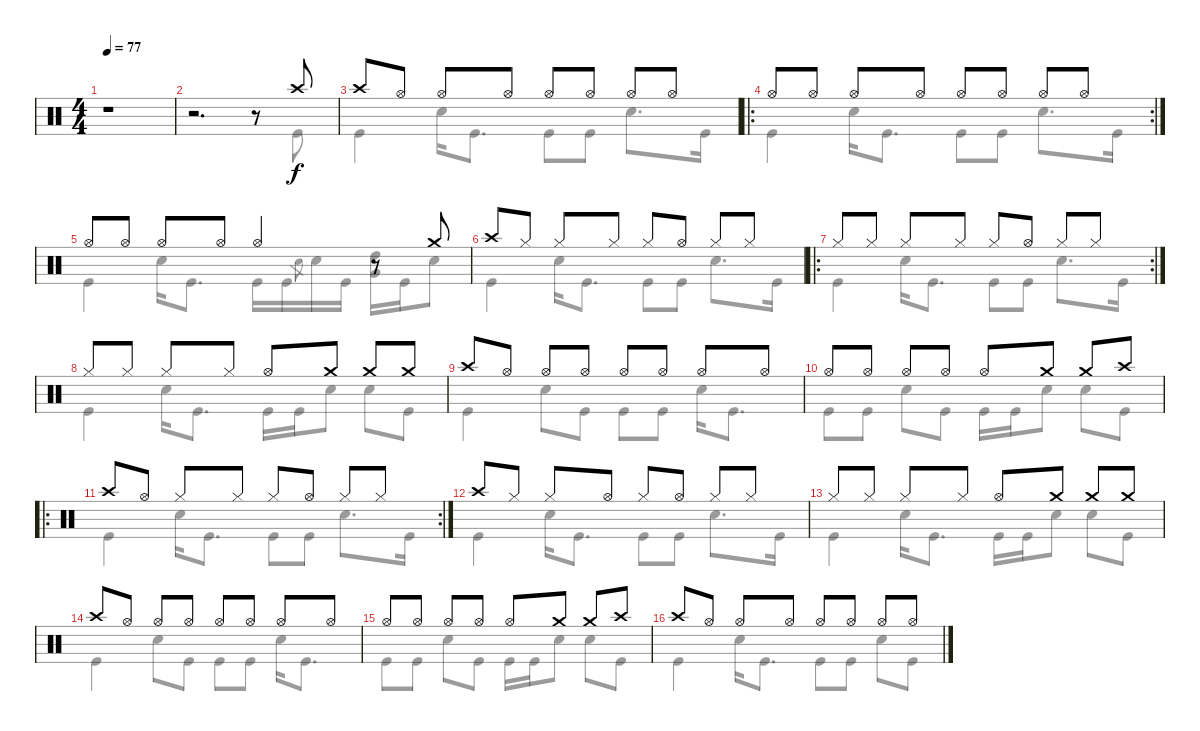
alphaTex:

\track "" {instrument percussion}
\staff {score}
\articulation defaults
\voice
\ts (4 4)
\tempo 77
\clef neutral
\ks c
r.1{dy f} |
r.2{d} r.8 "Crash high (hit)".8 |
"Crash high (hit)".8 "Hi-Hat (open)".8 "Hi-Hat (open)".8 "Hi-Hat (open)".8 "Hi-Hat (open)".8 "Hi-Hat (open)".8 "Hi-Hat (open)".8 "Hi-Hat (open)".8 |
\ro
\rc 2 "Hi-Hat (open)".8 "Hi-Hat (open)".8 "Hi-Hat (open)".8 "Hi-Hat (open)".8 "Hi-Hat (open)".8 "Hi-Hat (open)".8 "Hi-Hat (open)".8 "Hi-Hat (open)".8
|
"Hi-Hat (open)".8 "Hi-Hat (open)".8 "Hi-Hat (open)".8 "Hi-Hat (open)".8 "Hi-Hat (open)".4 r.8 "Crash medium (hit)".8 |
"Crash high (hit)".8 "Hi-Hat (closed)".8 "Hi-Hat (closed)".8 "Hi-Hat (closed)".8 "Hi-Hat (closed)".8 "Hi-Hat (open)".8 "Hi-Hat (closed)".8 "Hi-Hat (closed)".8 |
\ro
\rc 2 "Hi-Hat (closed)".8 "Hi-Hat (closed)".8 "Hi-Hat (closed)".8 "Hi-Hat (closed)".8 "Hi-Hat (closed)".8 "Hi-Hat (open)".8 "Hi-Hat (closed)".8 "Hi-Hat (closed)".8
|
"Hi-Hat (closed)".8 "Hi-Hat (closed)".8 "Hi-Hat (closed)".8 "Hi-Hat (closed)".8 "Hi-Hat (open)".8 "Crash medium (hit)".8 "Crash medium (hit)".8 "Crash medium (hit)".8 |
"Crash high (hit)".8 "Hi-Hat (open)".8 "Hi-Hat (open)".8 "Hi-Hat (open)".8 "Hi-Hat (open)".8 "Hi-Hat (open)".8 "Hi-Hat (open)".8 "Hi-Hat (open)".8 |
"Hi-Hat (open)".8 "Hi-Hat (open)".8 "Hi-Hat (open)".8 "Hi-Hat (open)".8 "Hi-Hat (open)".8 "Crash medium (hit)".8 "Crash medium (hit)".8 "Crash high (hit)".8 |
\ro
\rc 2 "Crash high (hit)".8 "Hi-Hat (open)".8 "Hi-Hat (closed)".8 "Hi-Hat (closed)".8 "Hi-Hat (closed)".8 "Hi-Hat (open)".8 "Hi-Hat (closed)".8 "Hi-Hat (closed)".8
|
"Crash high (hit)".8 "Hi-Hat (closed)".8 "Hi-Hat (closed)".8 "Hi-Hat (open)".8 "Hi-Hat (closed)".8 "Hi-Hat (open)".8 "Hi-Hat (closed)".8 "Hi-Hat (closed)".8 |
"Hi-Hat (closed)".8 "Hi-Hat (closed)".8 "Hi-Hat (closed)".8 "Hi-Hat (closed)".8 "Hi-Hat (open)".8 "Crash medium (hit)".8 "Crash medium (hit)".8 "Crash medium (hit)".8 |
"Crash high (hit)".8 "Hi-Hat (open)".8 "Hi-Hat (open)".8 "Hi-Hat (open)".8 "Hi-Hat (open)".8 "Hi-Hat (open)".8 "Hi-Hat (open)".8 "Hi-Hat (open)".8 |
"Hi-Hat (open)".8 "Hi-Hat (open)".8 "Hi-Hat (open)".8 "Hi-Hat (open)".8 "Hi-Hat (open)".8 "Crash medium (hit)".8 "Crash medium (hit)".8 "Crash high (hit)".8 |
"Crash high (hit)".8 "Hi-Hat (open)".8 "Hi-Hat (open)".8 "Hi-Hat (open)".8 "Hi-Hat (open)".8 "Hi-Hat (open)".8 "Hi-Hat (open)".8 "Hi-Hat (open)".8
\voice
\clef neutral
\ottava regular
\simile none
\ks c
|
r.2{d} r.8 "Kick (hit)".8 |
"Kick (hit)".4 "Snare (hit) 2".16 "Kick (hit)".8{d} "Kick (hit)".8 "Kick (hit)".8 "Snare (hit) 2".8{d} "Kick (hit)".16 |
"Kick (hit)".4 "Snare (hit) 2".16 "Kick (hit)".8{d} "Kick (hit)".8 "Kick (hit)".8 "Snare (hit) 2".8{d} "Kick (hit)".16 |
"Kick (hit)".4 "Snare (hit) 2".16 "Kick (hit)".8{d} "Kick (hit)".16 "Kick (hit)".16 "Snare (hit) 2".8{gr} "Snare (hit) 2".16 "Kick (hit)".16 ("High Tom (hit)" "Very Low Tom (hit)").16 "Kick (hit)".16 "Snare (hit) 2".8 |
"Kick (hit)".4 "Snare (hit) 2".16 "Kick (hit)".8{d} "Kick (hit)".8 "Kick (hit)".8 "Snare (hit) 2".8{d} "Kick (hit)".16 |
"Kick (hit)".4 "Snare (hit) 2".16 "Kick (hit)".8{d} "Kick (hit)".8 "Kick (hit)".8 "Snare (hit) 2".8{d} "Kick (hit)".16 |
"Kick (hit)".4 "Snare (hit) 2".16 "Kick (hit)".8{d} "Kick (hit)".16 "Kick (hit)".16 "Snare (hit) 2".8 "Snare (hit) 2".8 "Kick (hit)".8 |
"Kick (hit)".4 "Snare (hit) 2".8 "Kick (hit)".8 "Kick (hit)".8 "Kick (hit)".8 "Snare (hit) 2".16 "Kick (hit)".8{d} |
"Kick (hit)".8 "Kick (hit)".8 "Snare (hit) 2".8 "Kick (hit)".8 "Kick (hit)".16 "Kick (hit)".16 "Snare (hit) 2".8 "Snare (hit) 2".8 "Kick (hit)".8 |
"Kick (hit)".4 "Snare (hit) 2".16 "Kick (hit)".8{d} "Kick (hit)".8 "Kick (hit)".8 "Snare (hit) 2".8{d} "Kick (hit)".16 |
"Kick (hit)".4 "Snare (hit) 2".16 "Kick (hit)".8{d} "Kick (hit)".8 "Kick (hit)".8 "Snare (hit) 2".8{d} "Kick (hit)".16 |
"Kick (hit)".4 "Snare (hit) 2".16 "Kick (hit)".8{d} "Kick (hit)".16 "Kick (hit)".16 "Snare (hit) 2".8 "Snare (hit) 2".8 "Kick (hit)".8 |
"Kick (hit)".4 "Snare (hit) 2".8 "Kick (hit)".8 "Kick (hit)".8 "Kick (hit)".8 "Snare (hit) 2".16 "Kick (hit)".8{d} |
"Kick (hit)".8 "Kick (hit)".8 "Snare (hit) 2".8 "Kick (hit)".8 "Kick (hit)".16 "Kick (hit)".16 "Snare (hit) 2".8 "Snare (hit) 2".8 "Kick (hit)".8 |
"Kick (hit)".4 "Snare (hit) 2".16 "Kick (hit)".8{d} "Kick (hit)".8 "Kick (hit)".8 "Snare (hit) 2".8 "Kick (hit)".8
